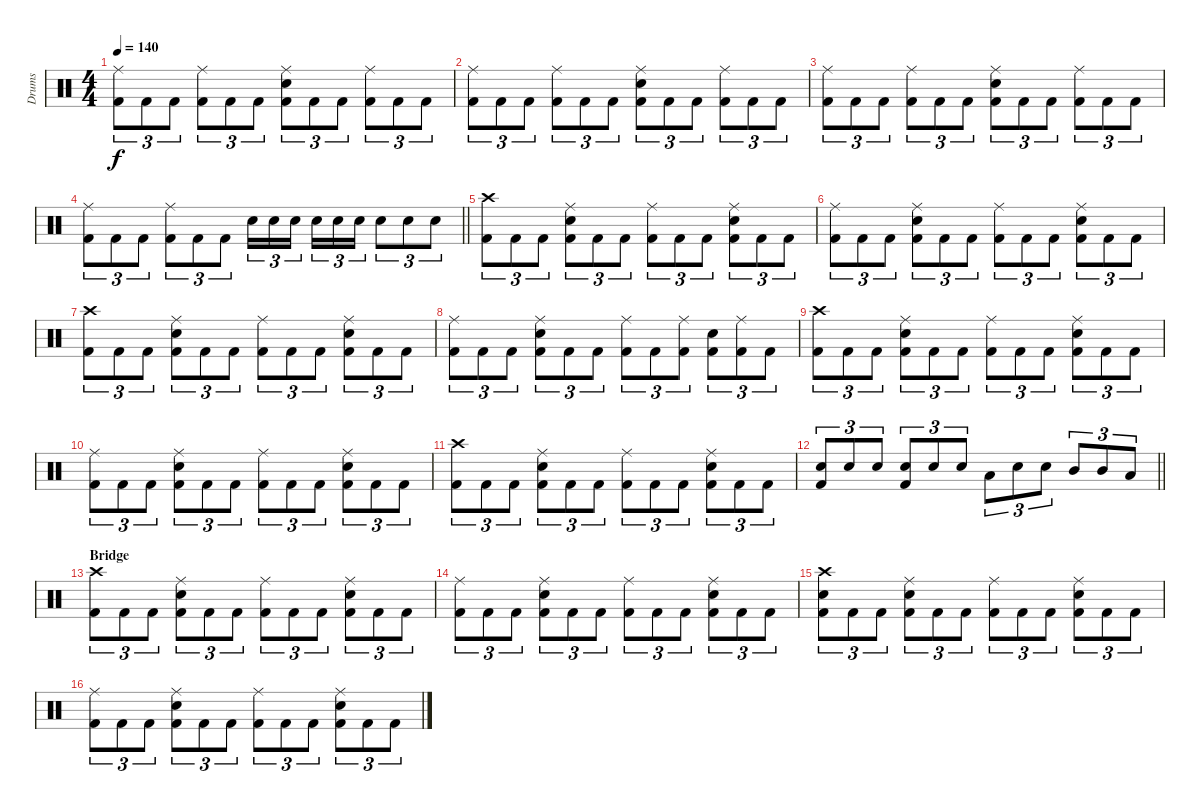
\track ("Drums" "Drums") {instrument percussion}
\staff {score}
\articulation defaults
\ts (4 4)
\tempo 140
\clef neutral
\ks c
("Ride (middle)" "Kick (hit) 2").8{tu (3 2) dy f} "Kick (hit) 2".8{tu (3 2)} "Kick (hit) 2".8{tu (3 2)} ("Ride (middle)" "Kick (hit) 2").8{tu (3 2)} "Kick (hit) 2".8{tu (3 2)} "Kick (hit) 2".8{tu (3 2)} ("Ride (middle)" "Snare (hit) 2" "Kick (hit) 2").8{tu (3 2)} "Kick (hit) 2".8{tu (3 2)} "Kick (hit) 2".8{tu (3 2)} ("Ride (middle)" "Kick (hit) 2").8{tu (3 2)} "Kick (hit) 2".8{tu (3 2)} "Kick (hit) 2".8{tu (3 2)} |
("Ride (middle)" "Kick (hit) 2").8{tu (3 2)} "Kick (hit) 2".8{tu (3 2)} "Kick (hit) 2".8{tu (3 2)} ("Ride (middle)" "Kick (hit) 2").8{tu (3 2)} "Kick (hit) 2".8{tu (3 2)} "Kick (hit) 2".8{tu (3 2)} ("Ride (middle)" "Snare (hit) 2" "Kick (hit) 2").8{tu (3 2)} "Kick (hit) 2".8{tu (3 2)} "Kick (hit) 2".8{tu (3 2)} ("Ride (middle)" "Kick (hit) 2").8{tu (3 2)} "Kick (hit) 2".8{tu (3 2)} "Kick (hit) 2".8{tu (3 2)} |
("Ride (middle)" "Kick (hit) 2").8{tu (3 2)} "Kick (hit) 2".8{tu (3 2)} "Kick (hit) 2".8{tu (3 2)} ("Ride (middle)" "Kick (hit) 2").8{tu (3 2)} "Kick (hit) 2".8{tu (3 2)} "Kick (hit) 2".8{tu (3 2)} ("Ride (middle)" "Snare (hit) 2" "Kick (hit) 2").8{tu (3 2)} "Kick (hit) 2".8{tu (3 2)} "Kick (hit) 2".8{tu (3 2)} ("Ride (middle)" "Kick (hit) 2").8{tu (3 2)} "Kick (hit) 2".8{tu (3 2)} "Kick (hit) 2".8{tu (3 2)} |
\barLineRight lightlight
("Ride (middle)" "Kick (hit) 2").8{tu (3 2)} "Kick (hit) 2".8{tu (3 2)} "Kick (hit) 2".8{tu (3 2)} ("Ride (middle)" "Kick (hit) 2").8{tu (3 2)} "Kick (hit) 2".8{tu (3 2)} "Kick (hit) 2".8{tu (3 2)} "Snare (hit) 2".16{tu (3 2)} "Snare (hit) 2".16{tu (3 2)} "Snare (hit) 2".16{tu (3 2) beam splitsecondary} "Snare (hit) 2".16{tu (3 2)} "Snare (hit) 2".16{tu (3 2)} "Snare (hit) 2".16{tu (3 2)} "Snare (hit) 2".8{tu (3 2)} "Snare (hit) 2".8{tu (3 2)} "Snare (hit) 2".8{tu (3 2)} |
("Crash high (hit)" "Kick (hit) 2").8{tu (3 2)} "Kick (hit) 2".8{tu (3 2)} "Kick (hit) 2".8{tu (3 2)} ("Ride (middle)" "Snare (hit) 2" "Kick (hit) 2").8{tu (3 2)} "Kick (hit) 2".8{tu (3 2)} "Kick (hit) 2".8{tu (3 2)} ("Ride (middle)" "Kick (hit) 2").8{tu (3 2)} "Kick (hit) 2".8{tu (3 2)} "Kick (hit) 2".8{tu (3 2)} ("Ride (middle)" "Snare (hit) 2" "Kick (hit) 2").8{tu (3 2)} "Kick (hit) 2".8{tu (3 2)} "Kick (hit) 2".8{tu (3 2)} |
("Ride (middle)" "Kick (hit) 2").8{tu (3 2)} "Kick (hit) 2".8{tu (3 2)} "Kick (hit) 2".8{tu (3 2)} ("Ride (middle)" "Snare (hit) 2" "Kick (hit) 2").8{tu (3 2)} "Kick (hit) 2".8{tu (3 2)} "Kick (hit) 2".8{tu (3 2)} ("Ride (middle)" "Kick (hit) 2").8{tu (3 2)} "Kick (hit) 2".8{tu (3 2)} "Kick (hit) 2".8{tu (3 2)} ("Ride (middle)" "Snare (hit) 2" "Kick (hit) 2").8{tu (3 2)} "Kick (hit) 2".8{tu (3 2)} "Kick (hit) 2".8{tu (3 2)} |
("Crash high (hit)" "Kick (hit) 2").8{tu (3 2)} "Kick (hit) 2".8{tu (3 2)} "Kick (hit) 2".8{tu (3 2)} ("Ride (middle)" "Snare (hit) 2" "Kick (hit) 2").8{tu (3 2)} "Kick (hit) 2".8{tu (3 2)} "Kick (hit) 2".8{tu (3 2)} ("Ride (middle)" "Kick (hit) 2").8{tu (3 2)} "Kick (hit) 2".8{tu (3 2)} "Kick (hit) 2".8{tu (3 2)} ("Ride (middle)" "Snare (hit) 2" "Kick (hit) 2").8{tu (3 2)} "Kick (hit) 2".8{tu (3 2)} "Kick (hit) 2".8{tu (3 2)} |
("Ride (middle)" "Kick (hit) 2").8{tu (3 2)} "Kick (hit) 2".8{tu (3 2)} "Kick (hit) 2".8{tu (3 2)} ("Ride (middle)" "Snare (hit) 2" "Kick (hit) 2").8{tu (3 2)} "Kick (hit) 2".8{tu (3 2)} "Kick (hit) 2".8{tu (3 2)} ("Ride (middle)" "Kick (hit) 2").8{tu (3 2)} "Kick (hit) 2".8{tu (3 2)} ("Ride (middle)" "Kick (hit) 2").8{tu (3 2)} ("Snare (hit) 2" "Kick (hit) 2").8{tu (3 2)} ("Ride (middle)" "Kick (hit) 2").8{tu (3 2)} "Kick (hit) 2".8{tu (3 2)} |
("Crash high (hit)" "Kick (hit) 2").8{tu (3 2)} "Kick (hit) 2".8{tu (3 2)} "Kick (hit) 2".8{tu (3 2)} ("Ride (middle)" "Snare (hit) 2" "Kick (hit) 2").8{tu (3 2)} "Kick (hit) 2".8{tu (3 2)} "Kick (hit) 2".8{tu (3 2)} ("Ride (middle)" "Kick (hit) 2").8{tu (3 2)} "Kick (hit) 2".8{tu (3 2)} "Kick (hit) 2".8{tu (3 2)} ("Ride (middle)" "Snare (hit) 2" "Kick (hit) 2").8{tu (3 2)} "Kick (hit) 2".8{tu (3 2)} "Kick (hit) 2".8{tu (3 2)} |
("Ride (middle)" "Kick (hit) 2").8{tu (3 2)} "Kick (hit) 2".8{tu (3 2)} "Kick (hit) 2".8{tu (3 2)} ("Ride (middle)" "Snare (hit) 2" "Kick (hit) 2").8{tu (3 2)} "Kick (hit) 2".8{tu (3 2)} "Kick (hit) 2".8{tu (3 2)} ("Ride (middle)" "Kick (hit) 2").8{tu (3 2)} "Kick (hit) 2".8{tu (3 2)} "Kick (hit) 2".8{tu (3 2)} ("Ride (middle)" "Snare (hit) 2" "Kick (hit) 2").8{tu (3 2)} "Kick (hit) 2".8{tu (3 2)} "Kick (hit) 2".8{tu (3 2)} |
("Crash high (hit)" "Kick (hit) 2").8{tu (3 2)} "Kick (hit) 2".8{tu (3 2)} "Kick (hit) 2".8{tu (3 2)} ("Ride (middle)" "Snare (hit) 2" "Kick (hit) 2").8{tu (3 2)} "Kick (hit) 2".8{tu (3 2)} "Kick (hit) 2".8{tu (3 2)} ("Ride (middle)" "Kick (hit) 2").8{tu (3 2)} "Kick (hit) 2".8{tu (3 2)} "Kick (hit) 2".8{tu (3 2)} ("Ride (middle)" "Snare (hit) 2" "Kick (hit) 2").8{tu (3 2)} "Kick (hit) 2".8{tu (3 2)} "Kick (hit) 2".8{tu (3 2)} |
\barLineRight lightlight
("Snare (hit) 2" "Kick (hit) 2").8{tu (3 2)} "Snare (hit) 2".8{tu (3 2)} "Snare (hit) 2".8{tu (3 2)} ("Snare (hit) 2" "Kick (hit) 2").8{tu (3 2)} "Snare (hit) 2".8{tu (3 2)} "Snare (hit) 2".8{tu (3 2)} "Low Floor Tom (hit)".8{tu (3 2)} "Snare (hit) 2".8{tu (3 2)} "Snare (hit) 2".8{tu (3 2)} "Mid Tom (hit)".8{tu (3 2)} "Mid Tom (hit)".8{tu (3 2)} "Low Tom (hit)".8{tu (3 2)} |
\section ("" "Bridge")
("Crash high (hit)" "Kick (hit) 2").8{tu (3 2)} "Kick (hit) 2".8{tu (3 2)} "Kick (hit) 2".8{tu (3 2)} ("Ride (middle)" "Snare (hit) 2" "Kick (hit) 2").8{tu (3 2)} "Kick (hit) 2".8{tu (3 2)} "Kick (hit) 2".8{tu (3 2)} ("Ride (middle)" "Kick (hit) 2").8{tu (3 2)} "Kick (hit) 2".8{tu (3 2)} "Kick (hit) 2".8{tu (3 2)} ("Ride (middle)" "Snare (hit) 2" "Kick (hit) 2").8{tu (3 2)} "Kick (hit) 2".8{tu (3 2)} "Kick (hit) 2".8{tu (3 2)} |
("Ride (middle)" "Kick (hit) 2").8{tu (3 2)} "Kick (hit) 2".8{tu (3 2)} "Kick (hit) 2".8{tu (3 2)} ("Ride (middle)" "Snare (hit) 2" "Kick (hit) 2").8{tu (3 2)} "Kick (hit) 2".8{tu (3 2)} "Kick (hit) 2".8{tu (3 2)} ("Ride (middle)" "Kick (hit) 2").8{tu (3 2)} "Kick (hit) 2".8{tu (3 2)} "Kick (hit) 2".8{tu (3 2)} ("Ride (middle)" "Snare (hit) 2" "Kick (hit) 2").8{tu (3 2)} "Kick (hit) 2".8{tu (3 2)} "Kick (hit) 2".8{tu (3 2)} |
("Crash high (hit)" "Snare (hit) 2" "Kick (hit) 2").8{tu (3 2)} "Kick (hit) 2".8{tu (3 2)} "Kick (hit) 2".8{tu (3 2)} ("Ride (middle)" "Snare (hit) 2" "Kick (hit) 2").8{tu (3 2)} "Kick (hit) 2".8{tu (3 2)} "Kick (hit) 2".8{tu (3 2)} ("Ride (middle)" "Kick (hit) 2").8{tu (3 2)} "Kick (hit) 2".8{tu (3 2)} "Kick (hit) 2".8{tu (3 2)} ("Ride (middle)" "Snare (hit) 2" "Kick (hit) 2").8{tu (3 2)} "Kick (hit) 2".8{tu (3 2)} "Kick (hit) 2".8{tu (3 2)} |
("Ride (middle)" "Kick (hit) 2").8{tu (3 2)} "Kick (hit) 2".8{tu (3 2)} "Kick (hit) 2".8{tu (3 2)} ("Ride (middle)" "Snare (hit) 2" "Kick (hit) 2").8{tu (3 2)} "Kick (hit) 2".8{tu (3 2)} "Kick (hit) 2".8{tu (3 2)} ("Ride (middle)" "Kick (hit) 2").8{tu (3 2)} "Kick (hit) 2".8{tu (3 2)} "Kick (hit) 2".8{tu (3 2)} ("Ride (middle)" "Snare (hit) 2" "Kick (hit) 2").8{tu (3 2)} "Kick (hit) 2".8{tu (3 2)} "Kick (hit) 2".8{tu (3 2)}
